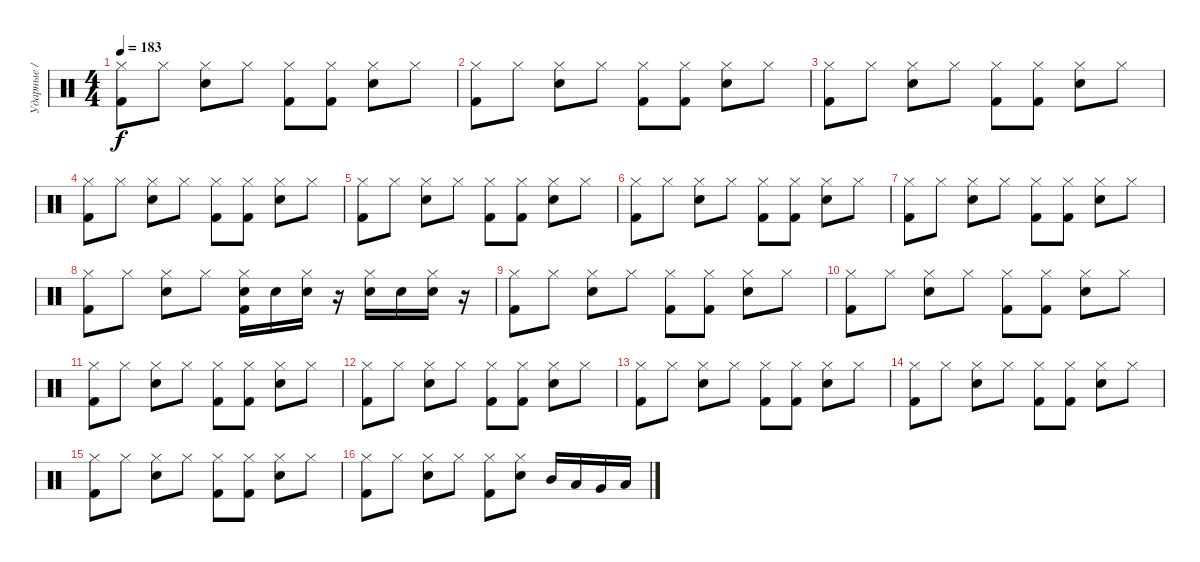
\track ("Ударные / Drums" "Ударные / ") {instrument percussion}
\staff {score}
\articulation defaults
\ts (4 4)
\tempo 183
\clef neutral
\ks c
("Hi-Hat (closed)" "Kick (hit) 2").8{dy f} "Hi-Hat (closed)".8 ("Hi-Hat (closed)" "Snare (hit) 2").8 "Hi-Hat (closed)".8 ("Hi-Hat (closed)" "Kick (hit) 2").8 ("Hi-Hat (closed)" "Kick (hit) 2").8 ("Hi-Hat (closed)" "Snare (hit) 2").8 "Hi-Hat (closed)".8 |
("Hi-Hat (closed)" "Kick (hit) 2").8 "Hi-Hat (closed)".8 ("Hi-Hat (closed)" "Snare (hit) 2").8 "Hi-Hat (closed)".8 ("Hi-Hat (closed)" "Kick (hit) 2").8 ("Hi-Hat (closed)" "Kick (hit) 2").8 ("Hi-Hat (closed)" "Snare (hit) 2").8 "Hi-Hat (closed)".8 |
("Hi-Hat (closed)" "Kick (hit) 2").8 "Hi-Hat (closed)".8 ("Hi-Hat (closed)" "Snare (hit) 2").8 "Hi-Hat (closed)".8 ("Hi-Hat (closed)" "Kick (hit) 2").8 ("Hi-Hat (closed)" "Kick (hit) 2").8 ("Hi-Hat (closed)" "Snare (hit) 2").8 "Hi-Hat (closed)".8 |
("Hi-Hat (closed)" "Kick (hit) 2").8 "Hi-Hat (closed)".8 ("Hi-Hat (closed)" "Snare (hit) 2").8 "Hi-Hat (closed)".8 ("Hi-Hat (closed)" "Kick (hit) 2").8 ("Hi-Hat (closed)" "Kick (hit) 2").8 ("Hi-Hat (closed)" "Snare (hit) 2").8 "Hi-Hat (closed)".8 |
("Hi-Hat (closed)" "Kick (hit) 2").8 "Hi-Hat (closed)".8 ("Hi-Hat (closed)" "Snare (hit) 2").8 "Hi-Hat (closed)".8 ("Hi-Hat (closed)" "Kick (hit) 2").8 ("Hi-Hat (closed)" "Kick (hit) 2").8 ("Hi-Hat (closed)" "Snare (hit) 2").8 "Hi-Hat (closed)".8 |
("Hi-Hat (closed)" "Kick (hit) 2").8 "Hi-Hat (closed)".8 ("Hi-Hat (closed)" "Snare (hit) 2").8 "Hi-Hat (closed)".8 ("Hi-Hat (closed)" "Kick (hit) 2").8 ("Hi-Hat (closed)" "Kick (hit) 2").8 ("Hi-Hat (closed)" "Snare (hit) 2").8 "Hi-Hat (closed)".8 |
("Hi-Hat (closed)" "Kick (hit) 2").8 "Hi-Hat (closed)".8 ("Hi-Hat (closed)" "Snare (hit) 2").8 "Hi-Hat (closed)".8 ("Hi-Hat (closed)" "Kick (hit) 2").8 ("Hi-Hat (closed)" "Kick (hit) 2").8 ("Hi-Hat (closed)" "Snare (hit) 2").8 "Hi-Hat (closed)".8 |
("Hi-Hat (closed)" "Kick (hit) 2").8 "Hi-Hat (closed)".8 ("Hi-Hat (closed)" "Snare (hit) 2").8 "Hi-Hat (closed)".8 ("Hi-Hat (closed)" "Snare (hit) 2" "Kick (hit) 2").16 "Snare (hit) 2".16 ("Hi-Hat (closed)" "Snare (hit) 2").16 r.16 ("Hi-Hat (closed)" "Snare (hit) 2").16 "Snare (hit) 2".16 ("Hi-Hat (closed)" "Snare (hit) 2").16 r.16 |
("Hi-Hat (closed)" "Kick (hit) 2").8 "Hi-Hat (closed)".8 ("Hi-Hat (closed)" "Snare (hit) 2").8 "Hi-Hat (closed)".8 ("Hi-Hat (closed)" "Kick (hit) 2").8 ("Hi-Hat (closed)" "Kick (hit) 2").8 ("Hi-Hat (closed)" "Snare (hit) 2").8 "Hi-Hat (closed)".8 |
("Hi-Hat (closed)" "Kick (hit) 2").8 "Hi-Hat (closed)".8 ("Hi-Hat (closed)" "Snare (hit) 2").8 "Hi-Hat (closed)".8 ("Hi-Hat (closed)" "Kick (hit) 2").8 ("Hi-Hat (closed)" "Kick (hit) 2").8 ("Hi-Hat (closed)" "Snare (hit) 2").8 "Hi-Hat (closed)".8 |
("Hi-Hat (closed)" "Kick (hit) 2").8 "Hi-Hat (closed)".8 ("Hi-Hat (closed)" "Snare (hit) 2").8 "Hi-Hat (closed)".8 ("Hi-Hat (closed)" "Kick (hit) 2").8 ("Hi-Hat (closed)" "Kick (hit) 2").8 ("Hi-Hat (closed)" "Snare (hit) 2").8 "Hi-Hat (closed)".8 |
("Hi-Hat (closed)" "Kick (hit) 2").8 "Hi-Hat (closed)".8 ("Hi-Hat (closed)" "Snare (hit) 2").8 "Hi-Hat (closed)".8 ("Hi-Hat (closed)" "Kick (hit) 2").8 ("Hi-Hat (closed)" "Kick (hit) 2").8 ("Hi-Hat (closed)" "Snare (hit) 2").8 "Hi-Hat (closed)".8 |
("Hi-Hat (closed)" "Kick (hit) 2").8 "Hi-Hat (closed)".8 ("Hi-Hat (closed)" "Snare (hit) 2").8 "Hi-Hat (closed)".8 ("Hi-Hat (closed)" "Kick (hit) 2").8 ("Hi-Hat (closed)" "Kick (hit) 2").8 ("Hi-Hat (closed)" "Snare (hit) 2").8 "Hi-Hat (closed)".8 |
("Hi-Hat (closed)" "Kick (hit) 2").8 "Hi-Hat (closed)".8 ("Hi-Hat (closed)" "Snare (hit) 2").8 "Hi-Hat (closed)".8 ("Hi-Hat (closed)" "Kick (hit) 2").8 ("Hi-Hat (closed)" "Kick (hit) 2").8 ("Hi-Hat (closed)" "Snare (hit) 2").8 "Hi-Hat (closed)".8 |
("Hi-Hat (closed)" "Kick (hit) 2").8 "Hi-Hat (closed)".8 ("Hi-Hat (closed)" "Snare (hit) 2").8 "Hi-Hat (closed)".8 ("Hi-Hat (closed)" "Kick (hit) 2").8 ("Hi-Hat (closed)" "Kick (hit) 2").8 ("Hi-Hat (closed)" "Snare (hit) 2").8 "Hi-Hat (closed)".8 |
("Hi-Hat (closed)" "Kick (hit) 2").8 "Hi-Hat (closed)".8 ("Hi-Hat (closed)" "Snare (hit) 2").8 "Hi-Hat (closed)".8 ("Hi-Hat (closed)" "Kick (hit) 2").8 ("Hi-Hat (closed)" "Snare (hit) 2").8 "Mid Tom (hit)".16 "Low Tom (hit)".16 "Very Low Tom (hit)".16 "Low Floor Tom (hit)".16
